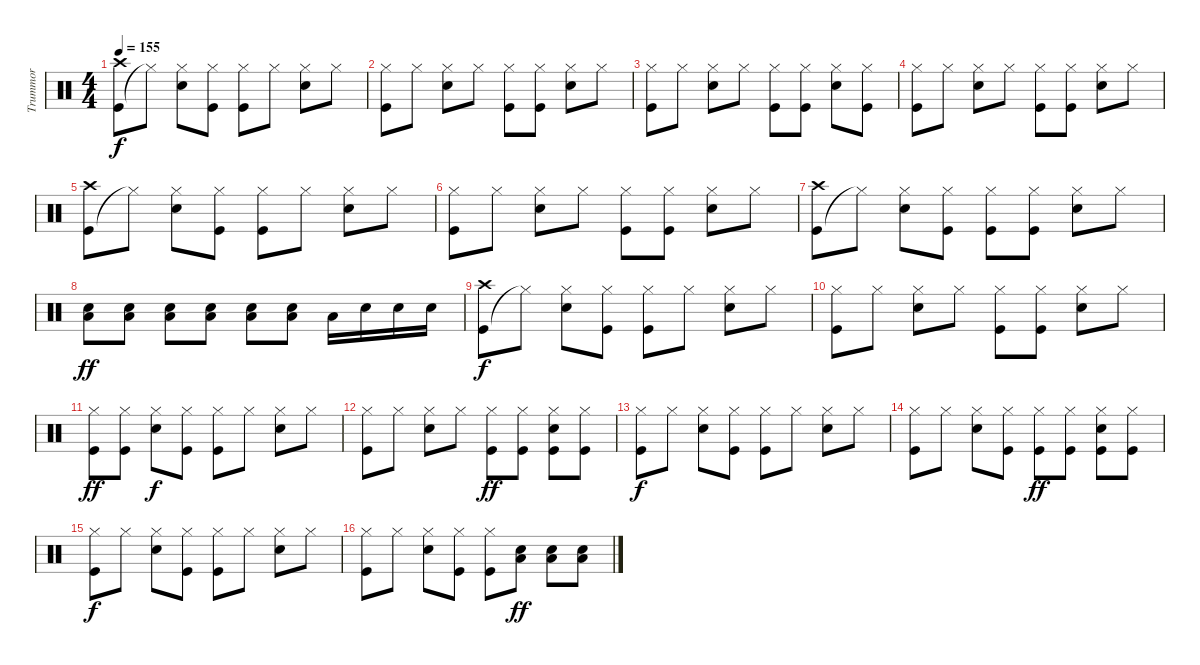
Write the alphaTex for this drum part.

\track ("Trummor" "Trummor") {instrument percussion}
\staff {score}
\articulation defaults
\ts (4 4)
\tempo 155
\clef neutral
\ks c
("Kick (hit)" "Crash high (hit)").8{dy f} "Hi-Hat (closed)"{t}.8 ("Snare (hit) 2" "Hi-Hat (closed)").8 ("Kick (hit)" "Hi-Hat (closed)").8 ("Kick (hit)" "Hi-Hat (closed)").8 "Hi-Hat (closed)".8 ("Snare (hit) 2" "Hi-Hat (closed)").8 "Hi-Hat (closed)".8 |
("Kick (hit)" "Hi-Hat (closed)").8 "Hi-Hat (closed)".8 ("Snare (hit) 2" "Hi-Hat (closed)").8 "Hi-Hat (closed)".8 ("Kick (hit)" "Hi-Hat (closed)").8 ("Kick (hit)" "Hi-Hat (closed)").8 ("Snare (hit) 2" "Hi-Hat (closed)").8 "Hi-Hat (closed)".8 |
("Kick (hit)" "Hi-Hat (closed)").8 "Hi-Hat (closed)".8 ("Snare (hit) 2" "Hi-Hat (closed)").8 "Hi-Hat (closed)".8 ("Kick (hit)" "Hi-Hat (closed)").8 ("Kick (hit)" "Hi-Hat (closed)").8 ("Snare (hit) 2" "Hi-Hat (closed)").8 ("Kick (hit)" "Hi-Hat (closed)").8 |
("Kick (hit)" "Hi-Hat (closed)").8 "Hi-Hat (closed)".8 ("Snare (hit) 2" "Hi-Hat (closed)").8 "Hi-Hat (closed)".8 ("Kick (hit)" "Hi-Hat (closed)").8 ("Kick (hit)" "Hi-Hat (closed)").8 ("Snare (hit) 2" "Hi-Hat (closed)").8 "Hi-Hat (closed)".8 |
("Kick (hit)" "Crash high (hit)").8 "Hi-Hat (closed)"{t}.8 ("Snare (hit) 2" "Hi-Hat (closed)").8 ("Kick (hit)" "Hi-Hat (closed)").8 ("Kick (hit)" "Hi-Hat (closed)").8 "Hi-Hat (closed)".8 ("Snare (hit) 2" "Hi-Hat (closed)").8 "Hi-Hat (closed)".8 |
("Kick (hit)" "Hi-Hat (closed)").8 "Hi-Hat (closed)".8 ("Snare (hit) 2" "Hi-Hat (closed)").8 "Hi-Hat (closed)".8 ("Kick (hit)" "Hi-Hat (closed)").8 ("Kick (hit)" "Hi-Hat (closed)").8 ("Snare (hit) 2" "Hi-Hat (closed)").8 "Hi-Hat (closed)".8 |
("Kick (hit)" "Crash high (hit)").8 "Hi-Hat (closed)"{t}.8 ("Snare (hit) 2" "Hi-Hat (closed)").8 ("Kick (hit)" "Hi-Hat (closed)").8 ("Kick (hit)" "Hi-Hat (closed)").8 ("Kick (hit)" "Hi-Hat (closed)").8 ("Snare (hit) 2" "Hi-Hat (closed)").8 "Hi-Hat (closed)".8 |
("Snare (hit) 2" "Low Floor Tom (hit)").8{dy ff} ("Snare (hit) 2" "Low Floor Tom (hit)").8 ("Snare (hit) 2" "Low Floor Tom (hit)").8 ("Snare (hit) 2" "Low Floor Tom (hit)").8 ("Snare (hit) 2" "Low Floor Tom (hit)").8 ("Snare (hit) 2" "Low Floor Tom (hit)").8 "Low Floor Tom (hit)".16 "Snare (hit) 2".16 "Snare (hit) 2".16 "Snare (hit) 2".16 |
("Kick (hit)" "Crash high (hit)").8{dy f} "Hi-Hat (closed)"{t}.8 ("Snare (hit) 2" "Hi-Hat (closed)").8 ("Kick (hit)" "Hi-Hat (closed)").8 ("Kick (hit)" "Hi-Hat (closed)").8 "Hi-Hat (closed)".8 ("Snare (hit) 2" "Hi-Hat (closed)").8 "Hi-Hat (closed)".8 |
("Kick (hit)" "Hi-Hat (closed)").8 "Hi-Hat (closed)".8 ("Snare (hit) 2" "Hi-Hat (closed)").8 "Hi-Hat (closed)".8 ("Kick (hit)" "Hi-Hat (closed)").8 ("Kick (hit)" "Hi-Hat (closed)").8 ("Snare (hit) 2" "Hi-Hat (closed)").8 "Hi-Hat (closed)".8 |
("Kick (hit)" "Hi-Hat (closed)").8{dy ff} ("Kick (hit)" "Hi-Hat (closed)").8 ("Snare (hit) 2" "Hi-Hat (closed)").8{dy f} ("Kick (hit)" "Hi-Hat (closed)").8 ("Kick (hit)" "Hi-Hat (closed)").8 "Hi-Hat (closed)".8 ("Snare (hit) 2" "Hi-Hat (closed)").8 "Hi-Hat (closed)".8 |
("Kick (hit)" "Hi-Hat (closed)").8 "Hi-Hat (closed)".8 ("Snare (hit) 2" "Hi-Hat (closed)").8 "Hi-Hat (closed)".8 ("Kick (hit)" "Hi-Hat (closed)").8{dy ff} ("Kick (hit)" "Hi-Hat (closed)").8 ("Kick (hit)" "Snare (hit) 2" "Hi-Hat (closed)").8 ("Kick (hit)" "Hi-Hat (closed)").8 |
("Kick (hit)" "Hi-Hat (closed)").8{dy f} "Hi-Hat (closed)".8 ("Snare (hit) 2" "Hi-Hat (closed)").8 ("Kick (hit)" "Hi-Hat (closed)").8 ("Kick (hit)" "Hi-Hat (closed)").8 "Hi-Hat (closed)".8 ("Snare (hit) 2" "Hi-Hat (closed)").8 "Hi-Hat (closed)".8 |
("Kick (hit)" "Hi-Hat (closed)").8 "Hi-Hat (closed)".8 ("Snare (hit) 2" "Hi-Hat (closed)").8 ("Kick (hit)" "Hi-Hat (closed)").8 ("Kick (hit)" "Hi-Hat (closed)").8{dy ff} ("Kick (hit)" "Hi-Hat (closed)").8 ("Kick (hit)" "Snare (hit) 2" "Hi-Hat (closed)").8 ("Kick (hit)" "Hi-Hat (closed)").8 |
("Kick (hit)" "Hi-Hat (closed)").8{dy f} "Hi-Hat (closed)".8 ("Snare (hit) 2" "Hi-Hat (closed)").8 ("Kick (hit)" "Hi-Hat (closed)").8 ("Kick (hit)" "Hi-Hat (closed)").8 "Hi-Hat (closed)".8 ("Snare (hit) 2" "Hi-Hat (closed)").8 "Hi-Hat (closed)".8 |
("Kick (hit)" "Hi-Hat (closed)").8 "Hi-Hat (closed)".8 ("Snare (hit) 2" "Hi-Hat (closed)").8 ("Kick (hit)" "Hi-Hat (closed)").8 ("Kick (hit)" "Hi-Hat (closed)").8 ("Snare (hit) 2" "Low Floor Tom (hit)").8{dy ff} ("Snare (hit) 2" "Low Floor Tom (hit)").8 ("Snare (hit) 2" "Low Floor Tom (hit)").8
